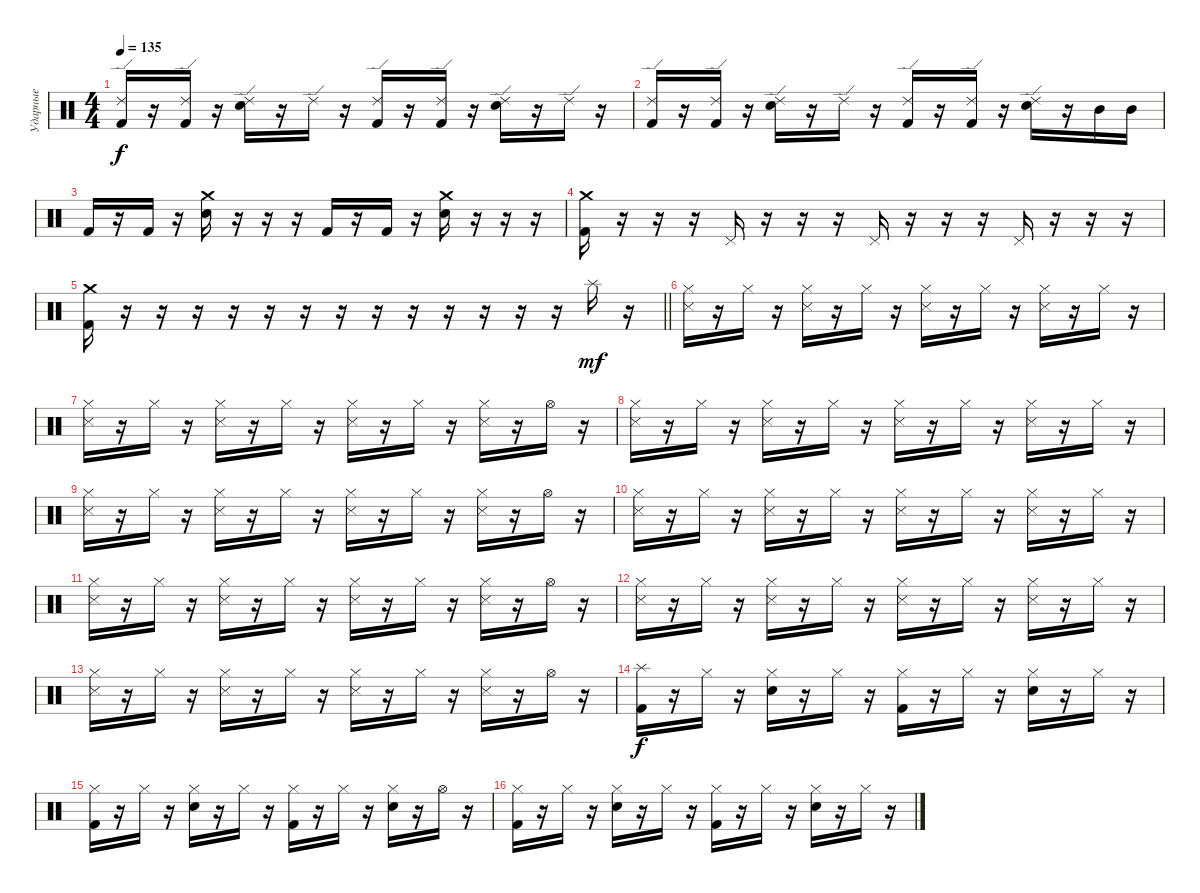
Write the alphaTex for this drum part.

\track ("Ударные" "Ударные") {instrument percussion}
\staff {score}
\articulation defaults
\ts (4 4)
\tempo 135
\clef neutral
\ks c
("Ride (edge) 2" "Kick (hit) 2").16{dy f} r.16 ("Ride (edge) 2" "Kick (hit) 2").16 r.16 ("Ride (edge) 2" "Electric Snare (hit)").16 r.16 "Ride (edge) 2".16 r.16 ("Ride (edge) 2" "Kick (hit) 2").16 r.16 ("Ride (edge) 2" "Kick (hit) 2").16 r.16 ("Ride (edge) 2" "Electric Snare (hit)").16 r.16 "Ride (edge) 2".16 r.16 |
("Ride (edge) 2" "Kick (hit) 2").16 r.16 ("Ride (edge) 2" "Kick (hit) 2").16 r.16 ("Ride (edge) 2" "Electric Snare (hit)").16 r.16 "Ride (edge) 2".16 r.16 ("Ride (edge) 2" "Kick (hit) 2").16 r.16 ("Ride (edge) 2" "Kick (hit) 2").16 r.16 ("Ride (edge) 2" "Electric Snare (hit)").16 r.16 "Mid Tom (hit)".16 "Mid Tom (hit)".16 |
"Kick (hit) 2".16 r.16 "Kick (hit) 2".16 r.16 ("Crash medium (hit)" "Electric Snare (hit)").16 r.16 r.16 r.16 "Kick (hit) 2".16 r.16 "Kick (hit) 2".16 r.16 ("Crash medium (hit)" "Electric Snare (hit)").16 r.16 r.16 r.16 |
("Crash medium (hit)" "Kick (hit) 2").16 r.16 r.16 r.16 "Pedal Hi-Hat (hit)".16 r.16 r.16 r.16 "Pedal Hi-Hat (hit)".16 r.16 r.16 r.16 "Pedal Hi-Hat (hit)".16 r.16 r.16 r.16 |
\barLineRight lightlight
("Crash medium (hit)" "Kick (hit) 2").16 r.16 r.16 r.16 r.16 r.16 r.16 r.16 r.16 r.16 r.16 r.16 r.16 r.16 "Splash (hit)".16{dy mf} r.16 |
("Hi-Hat (closed)" "Snare (side stick) 3").16 r.16 "Hi-Hat (closed)".16 r.16 ("Hi-Hat (closed)" "Snare (side stick) 3").16 r.16 "Hi-Hat (closed)".16 r.16 ("Hi-Hat (closed)" "Snare (side stick) 3").16 r.16 "Hi-Hat (closed)".16 r.16 ("Hi-Hat (closed)" "Snare (side stick) 3").16 r.16 "Hi-Hat (closed)".16 r.16 |
("Hi-Hat (closed)" "Snare (side stick) 3").16 r.16 "Hi-Hat (closed)".16 r.16 ("Hi-Hat (closed)" "Snare (side stick) 3").16 r.16 "Hi-Hat (closed)".16 r.16 ("Hi-Hat (closed)" "Snare (side stick) 3").16 r.16 "Hi-Hat (closed)".16 r.16 ("Hi-Hat (closed)" "Snare (side stick) 3").16 r.16 "Hi-Hat (open)".16 r.16 |
("Hi-Hat (closed)" "Snare (side stick) 3").16 r.16 "Hi-Hat (closed)".16 r.16 ("Hi-Hat (closed)" "Snare (side stick) 3").16 r.16 "Hi-Hat (closed)".16 r.16 ("Hi-Hat (closed)" "Snare (side stick) 3").16 r.16 "Hi-Hat (closed)".16 r.16 ("Hi-Hat (closed)" "Snare (side stick) 3").16 r.16 "Hi-Hat (closed)".16 r.16 |
("Hi-Hat (closed)" "Snare (side stick) 3").16 r.16 "Hi-Hat (closed)".16 r.16 ("Hi-Hat (closed)" "Snare (side stick) 3").16 r.16 "Hi-Hat (closed)".16 r.16 ("Hi-Hat (closed)" "Snare (side stick) 3").16 r.16 "Hi-Hat (closed)".16 r.16 ("Hi-Hat (closed)" "Snare (side stick) 3").16 r.16 "Hi-Hat (open)".16 r.16 |
("Hi-Hat (closed)" "Snare (side stick) 3").16 r.16 "Hi-Hat (closed)".16 r.16 ("Hi-Hat (closed)" "Snare (side stick) 3").16 r.16 "Hi-Hat (closed)".16 r.16 ("Hi-Hat (closed)" "Snare (side stick) 3").16 r.16 "Hi-Hat (closed)".16 r.16 ("Hi-Hat (closed)" "Snare (side stick) 3").16 r.16 "Hi-Hat (closed)".16 r.16 |
("Hi-Hat (closed)" "Snare (side stick) 3").16 r.16 "Hi-Hat (closed)".16 r.16 ("Hi-Hat (closed)" "Snare (side stick) 3").16 r.16 "Hi-Hat (closed)".16 r.16 ("Hi-Hat (closed)" "Snare (side stick) 3").16 r.16 "Hi-Hat (closed)".16 r.16 ("Hi-Hat (closed)" "Snare (side stick) 3").16 r.16 "Hi-Hat (open)".16 r.16 |
("Hi-Hat (closed)" "Snare (side stick) 3").16 r.16 "Hi-Hat (closed)".16 r.16 ("Hi-Hat (closed)" "Snare (side stick) 3").16 r.16 "Hi-Hat (closed)".16 r.16 ("Hi-Hat (closed)" "Snare (side stick) 3").16 r.16 "Hi-Hat (closed)".16 r.16 ("Hi-Hat (closed)" "Snare (side stick) 3").16 r.16 "Hi-Hat (closed)".16 r.16 |
("Hi-Hat (closed)" "Snare (side stick) 3").16 r.16 "Hi-Hat (closed)".16 r.16 ("Hi-Hat (closed)" "Snare (side stick) 3").16 r.16 "Hi-Hat (closed)".16 r.16 ("Hi-Hat (closed)" "Snare (side stick) 3").16 r.16 "Hi-Hat (closed)".16 r.16 ("Hi-Hat (closed)" "Snare (side stick) 3").16 r.16 "Hi-Hat (open)".16 r.16 |
("Splash (hit)" "Kick (hit) 2").16{dy f} r.16 "Hi-Hat (closed)".16 r.16 ("Hi-Hat (closed)" "Electric Snare (hit)").16 r.16 "Hi-Hat (closed)".16 r.16 ("Hi-Hat (closed)" "Kick (hit) 2").16 r.16 "Hi-Hat (closed)".16 r.16 ("Hi-Hat (closed)" "Electric Snare (hit)").16 r.16 "Hi-Hat (closed)".16 r.16 |
("Hi-Hat (closed)" "Kick (hit) 2").16 r.16 "Hi-Hat (closed)".16 r.16 ("Hi-Hat (closed)" "Electric Snare (hit)").16 r.16 "Hi-Hat (closed)".16 r.16 ("Hi-Hat (closed)" "Kick (hit) 2").16 r.16 "Hi-Hat (closed)".16 r.16 ("Hi-Hat (closed)" "Electric Snare (hit)").16 r.16 "Hi-Hat (open)".16 r.16 |
("Hi-Hat (closed)" "Kick (hit) 2").16 r.16 "Hi-Hat (closed)".16 r.16 ("Hi-Hat (closed)" "Electric Snare (hit)").16 r.16 "Hi-Hat (closed)".16 r.16 ("Hi-Hat (closed)" "Kick (hit) 2").16 r.16 "Hi-Hat (closed)".16 r.16 ("Hi-Hat (closed)" "Electric Snare (hit)").16 r.16 "Hi-Hat (closed)".16 r.16
